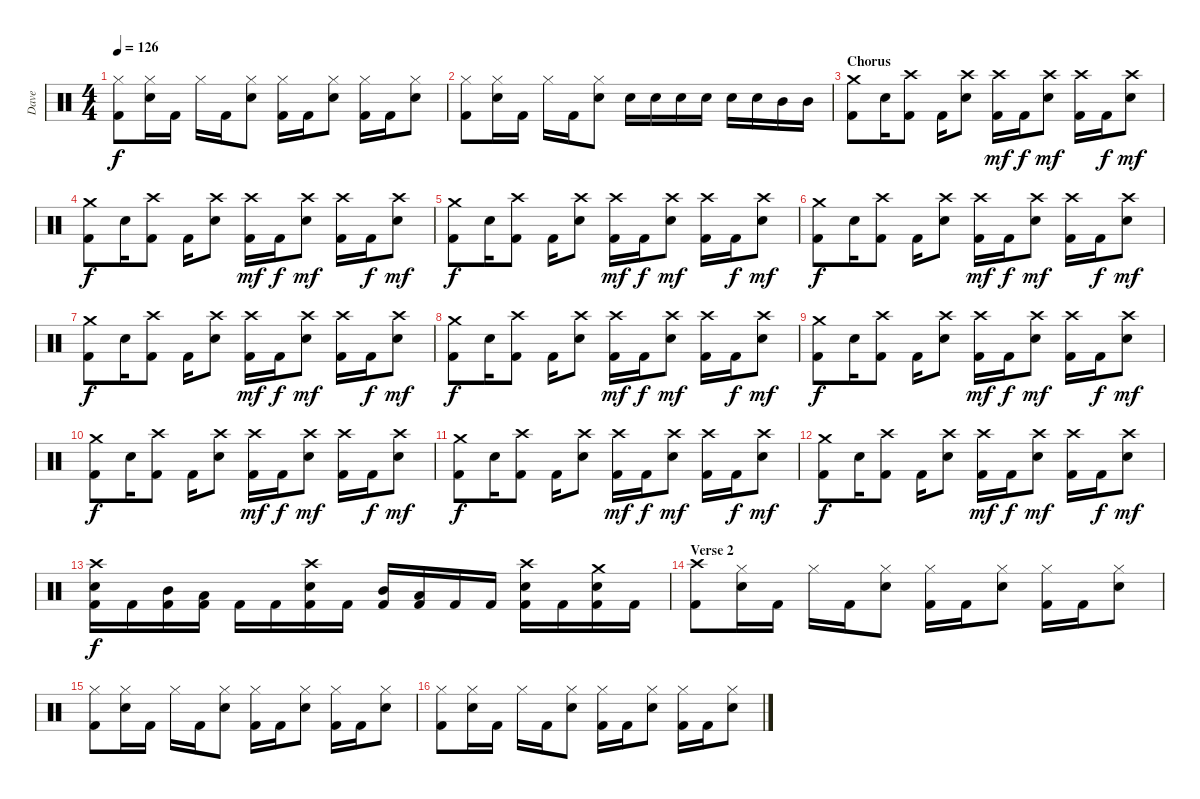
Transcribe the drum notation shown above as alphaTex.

\track ("Dave" "Dave") {instrument percussion}
\staff {score}
\articulation defaults
\ts (4 4)
\tempo 126
\clef neutral
\ks c
("Kick (hit) 2" "Hi-Hat (closed)").8{dy f} ("Electric Snare (hit)" "Hi-Hat (closed)").16 "Kick (hit) 2".16 "Hi-Hat (closed)".16 "Kick (hit) 2".16 ("Electric Snare (hit)" "Hi-Hat (closed)").8 ("Kick (hit) 2" "Hi-Hat (closed)").16 "Kick (hit) 2".16 ("Electric Snare (hit)" "Hi-Hat (closed)").8 ("Kick (hit) 2" "Hi-Hat (closed)").16 "Kick (hit) 2".16 ("Electric Snare (hit)" "Hi-Hat (closed)").8 |
("Kick (hit) 2" "Hi-Hat (closed)").8 ("Electric Snare (hit)" "Hi-Hat (closed)").16 "Kick (hit) 2".16 "Hi-Hat (closed)".16 "Kick (hit) 2".16 ("Electric Snare (hit)" "Hi-Hat (closed)").8 "Electric Snare (hit)".16 "Electric Snare (hit)".16 "Electric Snare (hit)".16 "Electric Snare (hit)".16 "Electric Snare (hit)".16 "Electric Snare (hit)".16 "Mid Tom (hit)".16 "Mid Tom (hit)".16 |
\section ("" "Chorus")
("Kick (hit) 2" "Crash medium (hit)").8 "Electric Snare (hit)".16 ("Kick (hit) 2" "Crash high (hit)").8 "Kick (hit) 2".16 ("Electric Snare (hit)" "Crash high (hit)").8 ("Kick (hit) 2" "Crash high (hit)").16{dy mf} "Kick (hit) 2".16{dy f} ("Electric Snare (hit)" "Crash high (hit)").8{dy mf} ("Kick (hit) 2" "Crash high (hit)").16 "Kick (hit) 2".16{dy f} ("Electric Snare (hit)" "Crash high (hit)").8{dy mf} |
("Kick (hit) 2" "Crash medium (hit)").8{dy f} "Electric Snare (hit)".16 ("Kick (hit) 2" "Crash high (hit)").8 "Kick (hit) 2".16 ("Electric Snare (hit)" "Crash high (hit)").8 ("Kick (hit) 2" "Crash high (hit)").16{dy mf} "Kick (hit) 2".16{dy f} ("Electric Snare (hit)" "Crash high (hit)").8{dy mf} ("Kick (hit) 2" "Crash high (hit)").16 "Kick (hit) 2".16{dy f} ("Electric Snare (hit)" "Crash high (hit)").8{dy mf} |
("Kick (hit) 2" "Crash medium (hit)").8{dy f} "Electric Snare (hit)".16 ("Kick (hit) 2" "Crash high (hit)").8 "Kick (hit) 2".16 ("Electric Snare (hit)" "Crash high (hit)").8 ("Kick (hit) 2" "Crash high (hit)").16{dy mf} "Kick (hit) 2".16{dy f} ("Electric Snare (hit)" "Crash high (hit)").8{dy mf} ("Kick (hit) 2" "Crash high (hit)").16 "Kick (hit) 2".16{dy f} ("Electric Snare (hit)" "Crash high (hit)").8{dy mf} |
("Kick (hit) 2" "Crash medium (hit)").8{dy f} "Electric Snare (hit)".16 ("Kick (hit) 2" "Crash high (hit)").8 "Kick (hit) 2".16 ("Electric Snare (hit)" "Crash high (hit)").8 ("Kick (hit) 2" "Crash high (hit)").16{dy mf} "Kick (hit) 2".16{dy f} ("Electric Snare (hit)" "Crash high (hit)").8{dy mf} ("Kick (hit) 2" "Crash high (hit)").16 "Kick (hit) 2".16{dy f} ("Electric Snare (hit)" "Crash high (hit)").8{dy mf} |
("Kick (hit) 2" "Crash medium (hit)").8{dy f} "Electric Snare (hit)".16 ("Kick (hit) 2" "Crash high (hit)").8 "Kick (hit) 2".16 ("Electric Snare (hit)" "Crash high (hit)").8 ("Kick (hit) 2" "Crash high (hit)").16{dy mf} "Kick (hit) 2".16{dy f} ("Electric Snare (hit)" "Crash high (hit)").8{dy mf} ("Kick (hit) 2" "Crash high (hit)").16 "Kick (hit) 2".16{dy f} ("Electric Snare (hit)" "Crash high (hit)").8{dy mf} |
("Kick (hit) 2" "Crash medium (hit)").8{dy f} "Electric Snare (hit)".16 ("Kick (hit) 2" "Crash high (hit)").8 "Kick (hit) 2".16 ("Electric Snare (hit)" "Crash high (hit)").8 ("Kick (hit) 2" "Crash high (hit)").16{dy mf} "Kick (hit) 2".16{dy f} ("Electric Snare (hit)" "Crash high (hit)").8{dy mf} ("Kick (hit) 2" "Crash high (hit)").16 "Kick (hit) 2".16{dy f} ("Electric Snare (hit)" "Crash high (hit)").8{dy mf} |
("Kick (hit) 2" "Crash medium (hit)").8{dy f} "Electric Snare (hit)".16 ("Kick (hit) 2" "Crash high (hit)").8 "Kick (hit) 2".16 ("Electric Snare (hit)" "Crash high (hit)").8 ("Kick (hit) 2" "Crash high (hit)").16{dy mf} "Kick (hit) 2".16{dy f} ("Electric Snare (hit)" "Crash high (hit)").8{dy mf} ("Kick (hit) 2" "Crash high (hit)").16 "Kick (hit) 2".16{dy f} ("Electric Snare (hit)" "Crash high (hit)").8{dy mf} |
("Kick (hit) 2" "Crash medium (hit)").8{dy f} "Electric Snare (hit)".16 ("Kick (hit) 2" "Crash high (hit)").8 "Kick (hit) 2".16 ("Electric Snare (hit)" "Crash high (hit)").8 ("Kick (hit) 2" "Crash high (hit)").16{dy mf} "Kick (hit) 2".16{dy f} ("Electric Snare (hit)" "Crash high (hit)").8{dy mf} ("Kick (hit) 2" "Crash high (hit)").16 "Kick (hit) 2".16{dy f} ("Electric Snare (hit)" "Crash high (hit)").8{dy mf} |
("Kick (hit) 2" "Crash medium (hit)").8{dy f} "Electric Snare (hit)".16 ("Kick (hit) 2" "Crash high (hit)").8 "Kick (hit) 2".16 ("Electric Snare (hit)" "Crash high (hit)").8 ("Kick (hit) 2" "Crash high (hit)").16{dy mf} "Kick (hit) 2".16{dy f} ("Electric Snare (hit)" "Crash high (hit)").8{dy mf} ("Kick (hit) 2" "Crash high (hit)").16 "Kick (hit) 2".16{dy f} ("Electric Snare (hit)" "Crash high (hit)").8{dy mf} |
("Kick (hit) 2" "Crash medium (hit)").8{dy f} "Electric Snare (hit)".16 ("Kick (hit) 2" "Crash high (hit)").8 "Kick (hit) 2".16 ("Electric Snare (hit)" "Crash high (hit)").8 ("Kick (hit) 2" "Crash high (hit)").16{dy mf} "Kick (hit) 2".16{dy f} ("Electric Snare (hit)" "Crash high (hit)").8{dy mf} ("Kick (hit) 2" "Crash high (hit)").16 "Kick (hit) 2".16{dy f} ("Electric Snare (hit)" "Crash high (hit)").8{dy mf} |
("Kick (hit) 2" "Electric Snare (hit)" "Crash high (hit)").16{dy f} "Kick (hit) 2".16 ("Kick (hit) 2" "Mid Tom (hit)").16 ("Kick (hit) 2" "Low Tom (hit)").16 "Kick (hit) 2".16 "Kick (hit) 2".16 ("Kick (hit) 2" "Electric Snare (hit)" "Crash high (hit)").16 "Kick (hit) 2".16 ("Kick (hit) 2" "Mid Tom (hit)").16 ("Kick (hit) 2" "Low Tom (hit)").16 "Kick (hit) 2".16 "Kick (hit) 2".16 ("Kick (hit) 2" "Electric Snare (hit)" "Crash high (hit)").16 "Kick (hit) 2".16 ("Kick (hit) 2" "Electric Snare (hit)" "Crash medium (hit)").16 "Kick (hit) 2".16 |
\section ("" "Verse 2")
("Kick (hit) 2" "Crash high (hit)").8 ("Electric Snare (hit)" "Hi-Hat (closed)").16 "Kick (hit) 2".16 "Hi-Hat (closed)".16 "Kick (hit) 2".16 ("Electric Snare (hit)" "Hi-Hat (closed)").8 ("Kick (hit) 2" "Hi-Hat (closed)").16 "Kick (hit) 2".16 ("Electric Snare (hit)" "Hi-Hat (closed)").8 ("Kick (hit) 2" "Hi-Hat (closed)").16 "Kick (hit) 2".16 ("Electric Snare (hit)" "Hi-Hat (closed)").8 |
("Kick (hit) 2" "Hi-Hat (closed)").8 ("Electric Snare (hit)" "Hi-Hat (closed)").16 "Kick (hit) 2".16 "Hi-Hat (closed)".16 "Kick (hit) 2".16 ("Electric Snare (hit)" "Hi-Hat (closed)").8 ("Kick (hit) 2" "Hi-Hat (closed)").16 "Kick (hit) 2".16 ("Electric Snare (hit)" "Hi-Hat (closed)").8 ("Kick (hit) 2" "Hi-Hat (closed)").16 "Kick (hit) 2".16 ("Electric Snare (hit)" "Hi-Hat (closed)").8 |
("Kick (hit) 2" "Hi-Hat (closed)").8 ("Electric Snare (hit)" "Hi-Hat (closed)").16 "Kick (hit) 2".16 "Hi-Hat (closed)".16 "Kick (hit) 2".16 ("Electric Snare (hit)" "Hi-Hat (closed)").8 ("Kick (hit) 2" "Hi-Hat (closed)").16 "Kick (hit) 2".16 ("Electric Snare (hit)" "Hi-Hat (closed)").8 ("Kick (hit) 2" "Hi-Hat (closed)").16 "Kick (hit) 2".16 ("Electric Snare (hit)" "Hi-Hat (closed)").8
